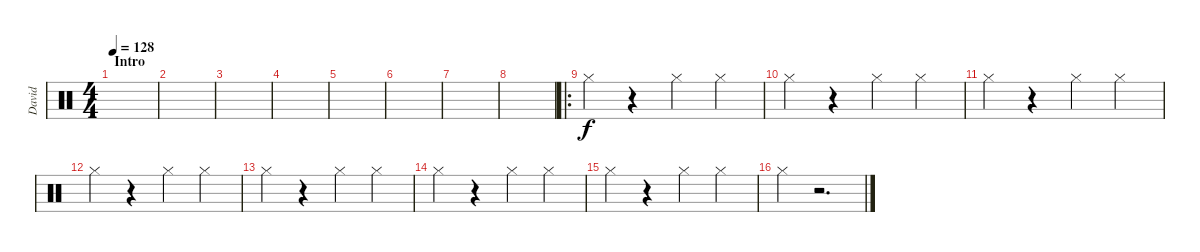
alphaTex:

\track ("David" "David") {instrument percussion}
\staff {score}
\articulation defaults
\ts (4 4)
\section ("" "Intro")
\tempo 128
\clef neutral
\ks c
|
|
|
|
|
|
|
|
\ro "Hi-Hat (closed)".4
r.4 "Hi-Hat (closed)".4 "Hi-Hat (closed)".4 |
"Hi-Hat (closed)".4 r.4 "Hi-Hat (closed)".4 "Hi-Hat (closed)".4 |
"Hi-Hat (closed)".4 r.4 "Hi-Hat (closed)".4 "Hi-Hat (closed)".4 |
"Hi-Hat (closed)".4 r.4 "Hi-Hat (closed)".4 "Hi-Hat (closed)".4 |
"Hi-Hat (closed)".4 r.4 "Hi-Hat (closed)".4 "Hi-Hat (closed)".4 |
"Hi-Hat (closed)".4 r.4 "Hi-Hat (closed)".4 "Hi-Hat (closed)".4 |
"Hi-Hat (closed)".4 r.4 "Hi-Hat (closed)".4 "Hi-Hat (closed)".4 |
"Hi-Hat (closed)".4 r.2{d}
